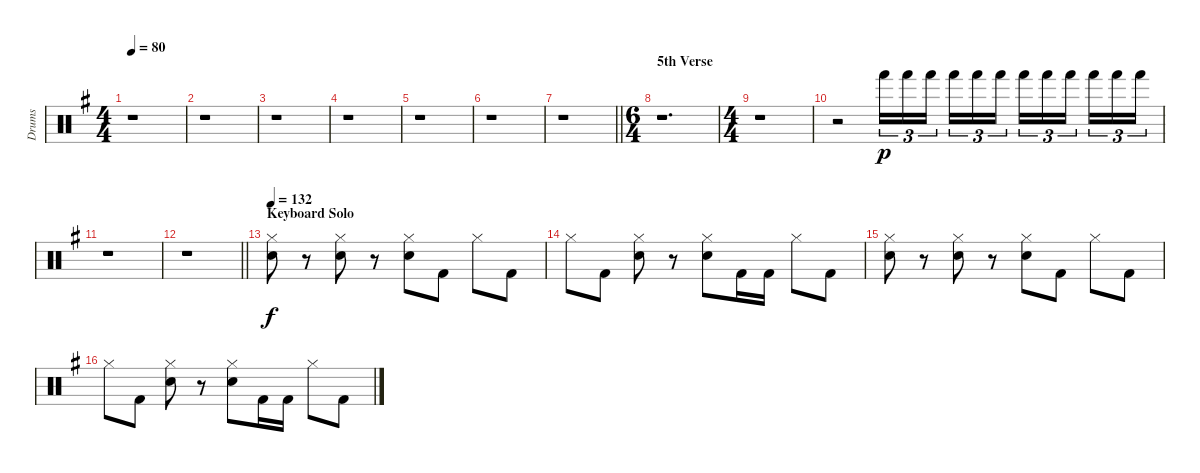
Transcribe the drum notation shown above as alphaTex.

\track ("Drums" "Drums") {instrument percussion}
\staff {score}
\articulation defaults
\ts (4 4)
\tempo 80
\clef neutral
\ks g
r.1{dy mp} |
r.1 |
r.1 |
r.1 |
r.1 |
r.1 |
\barLineRight lightlight
r.1 |
\ts (6 4)
\section ("" "5th Verse")
r.1{d} |
\ts (4 4)
r.1 |
r.2 "Hand (hit)".16{tu (3 2) dy p} "Hand (hit)".16{tu (3 2)} "Hand (hit)".16{tu (3 2) beam splitsecondary} "Hand (hit)".16{tu (3 2)} "Hand (hit)".16{tu (3 2)} "Hand (hit)".16{tu (3 2)} "Hand (hit)".16{tu (3 2)} "Hand (hit)".16{tu (3 2)} "Hand (hit)".16{tu (3 2) beam splitsecondary} "Hand (hit)".16{tu (3 2)} "Hand (hit)".16{tu (3 2)} "Hand (hit)".16{tu (3 2)} |
r.1 |
\barLineRight lightlight
r.1 |
\section ("" "Keyboard Solo")
\tempo 132
("Hi-Hat (closed)" "Snare (hit) 2").8{dy f} r.8 ("Hi-Hat (closed)" "Snare (hit) 2").8 r.8 ("Hi-Hat (closed)" "Snare (hit) 2").8 "Kick (hit) 2".8 "Hi-Hat (closed)".8 "Kick (hit) 2".8 |
"Hi-Hat (closed)".8 "Kick (hit) 2".8 ("Hi-Hat (closed)" "Snare (hit) 2").8 r.8 ("Hi-Hat (closed)" "Snare (hit) 2").8 "Kick (hit) 2".16 "Kick (hit) 2".16 "Hi-Hat (closed)".8 "Kick (hit) 2".8 |
("Hi-Hat (closed)" "Snare (hit) 2").8 r.8 ("Hi-Hat (closed)" "Snare (hit) 2").8 r.8 ("Hi-Hat (closed)" "Snare (hit) 2").8 "Kick (hit) 2".8 "Hi-Hat (closed)".8 "Kick (hit) 2".8 |
"Hi-Hat (closed)".8 "Kick (hit) 2".8 ("Hi-Hat (closed)" "Snare (hit) 2").8 r.8 ("Hi-Hat (closed)" "Snare (hit) 2").8 "Kick (hit) 2".16 "Kick (hit) 2".16 "Hi-Hat (closed)".8 "Kick (hit) 2".8
